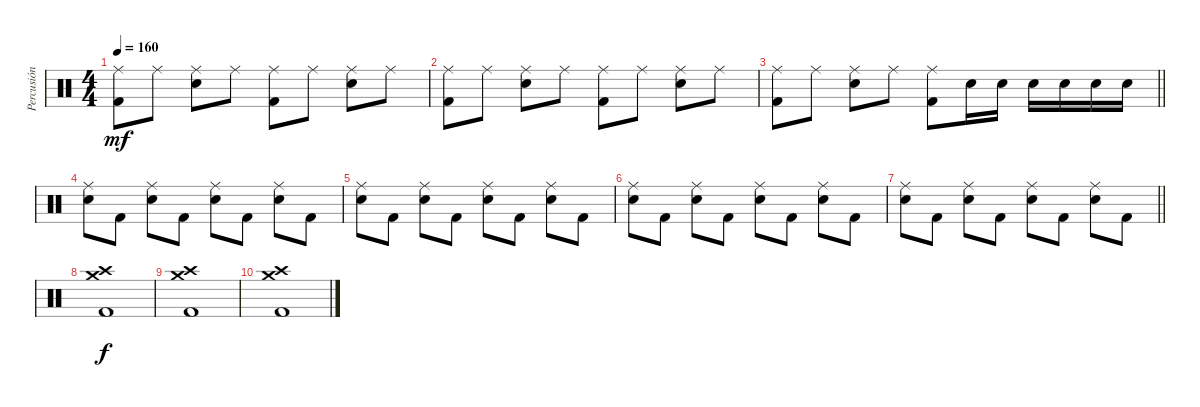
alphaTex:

\track ("Percusión" "Percusión") {instrument percussion}
\staff {score}
\articulation defaults
\ts (4 4)
\tempo 160
\clef neutral
\ks c
("Ride (middle)" "Kick (hit) 2").8{dy mf} "Ride (middle)".8 ("Ride (middle)" "Electric Snare (hit)").8 "Ride (middle)".8 ("Ride (middle)" "Kick (hit) 2").8 "Ride (middle)".8 ("Ride (middle)" "Electric Snare (hit)").8 "Ride (middle)".8 |
("Ride (middle)" "Kick (hit) 2").8 "Ride (middle)".8 ("Ride (middle)" "Electric Snare (hit)").8 "Ride (middle)".8 ("Ride (middle)" "Kick (hit) 2").8 "Ride (middle)".8 ("Ride (middle)" "Electric Snare (hit)").8 "Ride (middle)".8 |
\barLineRight lightlight
("Ride (middle)" "Kick (hit) 2").8 "Ride (middle)".8 ("Ride (middle)" "Electric Snare (hit)").8 "Ride (middle)".8 ("Ride (middle)" "Kick (hit) 2").8 "Electric Snare (hit)".16 "Electric Snare (hit)".16 "Electric Snare (hit)".16 "Electric Snare (hit)".16 "Electric Snare (hit)".16 "Electric Snare (hit)".16 |
("Ride (middle)" "Electric Snare (hit)").8 "Kick (hit) 2".8 ("Ride (middle)" "Electric Snare (hit)").8 "Kick (hit) 2".8 ("Ride (middle)" "Electric Snare (hit)").8 "Kick (hit) 2".8 ("Ride (middle)" "Electric Snare (hit)").8 "Kick (hit) 2".8 |
("Ride (middle)" "Electric Snare (hit)").8 "Kick (hit) 2".8 ("Ride (middle)" "Electric Snare (hit)").8 "Kick (hit) 2".8 ("Ride (middle)" "Electric Snare (hit)").8 "Kick (hit) 2".8 ("Ride (middle)" "Electric Snare (hit)").8 "Kick (hit) 2".8 |
("Ride (middle)" "Electric Snare (hit)").8 "Kick (hit) 2".8 ("Ride (middle)" "Electric Snare (hit)").8 "Kick (hit) 2".8 ("Ride (middle)" "Electric Snare (hit)").8 "Kick (hit) 2".8 ("Ride (middle)" "Electric Snare (hit)").8 "Kick (hit) 2".8 |
\barLineRight lightlight
("Ride (middle)" "Electric Snare (hit)").8 "Kick (hit) 2".8 ("Ride (middle)" "Electric Snare (hit)").8 "Kick (hit) 2".8 ("Ride (middle)" "Electric Snare (hit)").8 "Kick (hit) 2".8 ("Ride (middle)" "Electric Snare (hit)").8 "Kick (hit) 2".8 |
("Crash medium (hit)" "Crash high (hit)" "Kick (hit) 2").1{dy f} |
("Crash medium (hit)" "Crash high (hit)" "Kick (hit) 2").1 |
("Crash medium (hit)" "Crash high (hit)" "Kick (hit) 2").1
